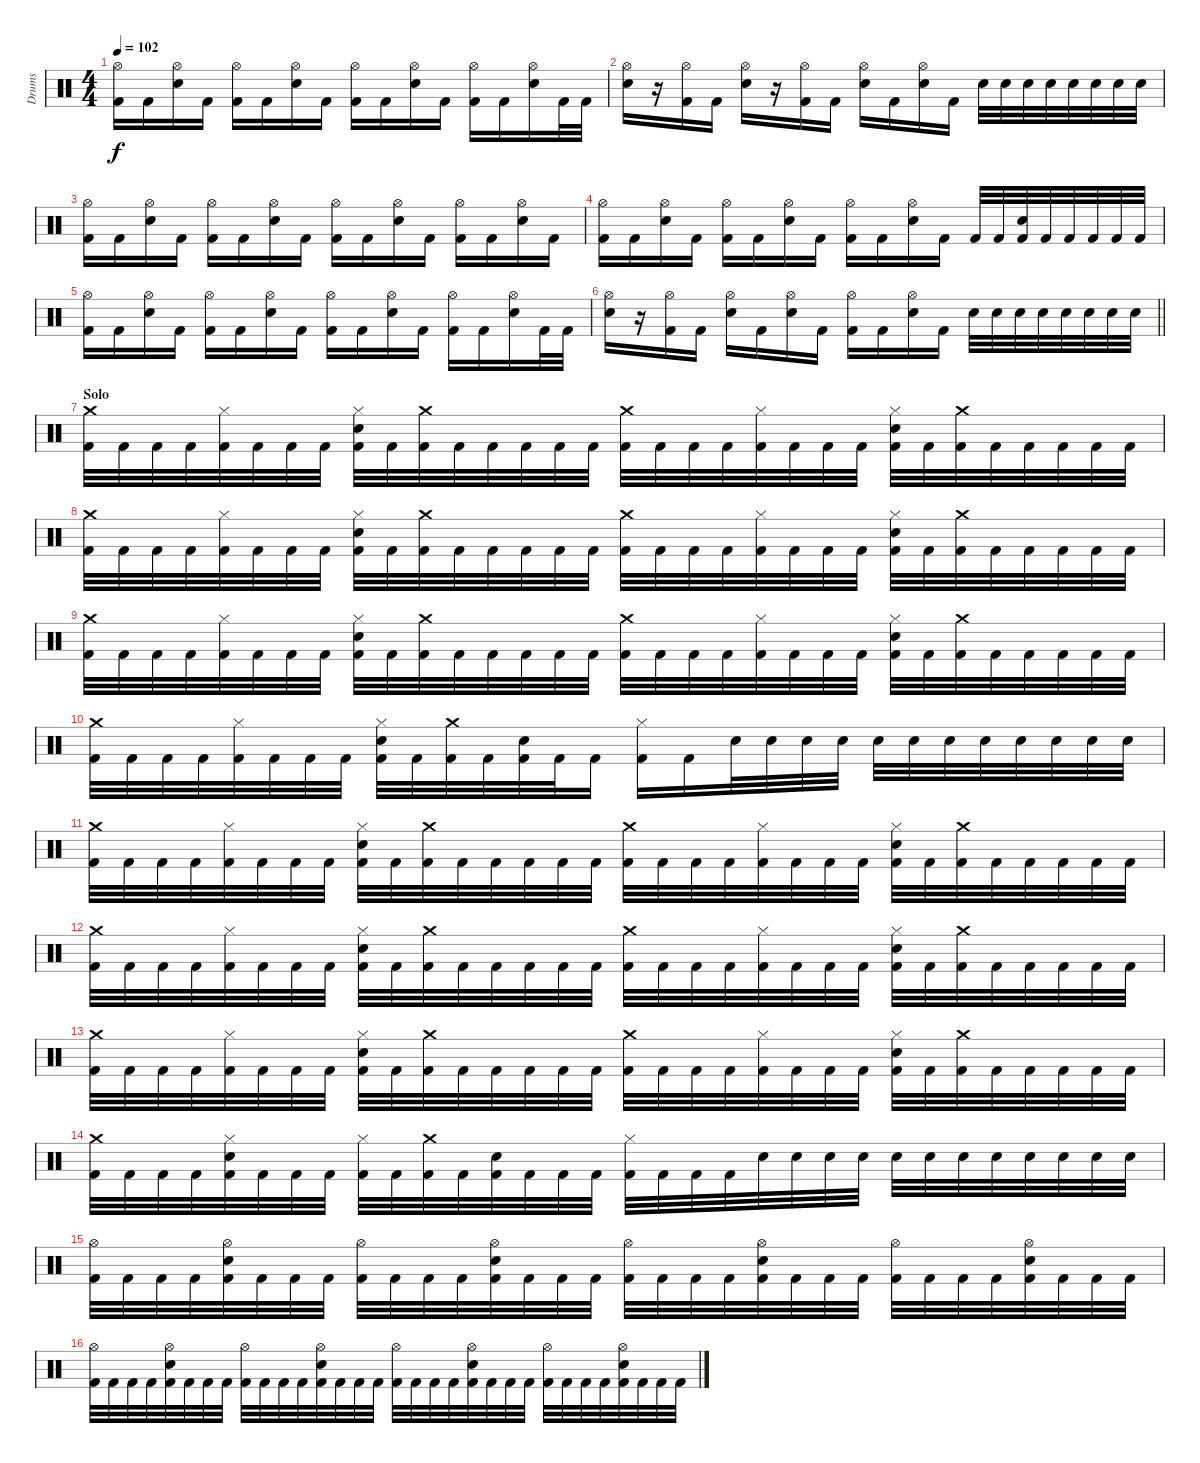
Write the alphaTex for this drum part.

\track ("Drums" "Drums") {instrument percussion}
\staff {score}
\articulation defaults
\ts (4 4)
\tempo 102
\clef neutral
\ks c
("Hi-Hat (open)" "Kick (hit) 2").16{dy f} "Kick (hit) 2".16 ("Hi-Hat (open)" "Snare (hit) 2").16 "Kick (hit) 2".16 ("Hi-Hat (open)" "Kick (hit) 2").16 "Kick (hit) 2".16 ("Hi-Hat (open)" "Snare (hit) 2").16 "Kick (hit) 2".16 ("Hi-Hat (open)" "Kick (hit) 2").16 "Kick (hit) 2".16 ("Hi-Hat (open)" "Snare (hit) 2").16 "Kick (hit) 2".16 ("Hi-Hat (open)" "Kick (hit) 2").16 "Kick (hit) 2".16 ("Hi-Hat (open)" "Snare (hit) 2").16 "Kick (hit) 2".32 "Kick (hit) 2".32 |
("Hi-Hat (open)" "Snare (hit) 2").16 r.16 ("Hi-Hat (open)" "Kick (hit) 2").16 "Kick (hit) 2".16 ("Hi-Hat (open)" "Snare (hit) 2").16 r.16 ("Hi-Hat (open)" "Kick (hit) 2").16 "Kick (hit) 2".16 ("Hi-Hat (open)" "Snare (hit) 2").16 "Kick (hit) 2".16 ("Hi-Hat (open)" "Snare (hit) 2").16 "Kick (hit) 2".16 "Snare (hit) 2".32 "Snare (hit) 2".32 "Snare (hit) 2".32 "Snare (hit) 2".32 "Snare (hit) 2".32 "Snare (hit) 2".32 "Snare (hit) 2".32 "Snare (hit) 2".32 |
("Hi-Hat (open)" "Kick (hit) 2").16 "Kick (hit) 2".16 ("Hi-Hat (open)" "Snare (hit) 2").16 "Kick (hit) 2".16 ("Hi-Hat (open)" "Kick (hit) 2").16 "Kick (hit) 2".16 ("Hi-Hat (open)" "Snare (hit) 2").16 "Kick (hit) 2".16 ("Hi-Hat (open)" "Kick (hit) 2").16 "Kick (hit) 2".16 ("Hi-Hat (open)" "Snare (hit) 2").16 "Kick (hit) 2".16 ("Hi-Hat (open)" "Kick (hit) 2").16 "Kick (hit) 2".16 ("Hi-Hat (open)" "Snare (hit) 2").16 "Kick (hit) 2".16 |
("Hi-Hat (open)" "Kick (hit) 2").16 "Kick (hit) 2".16 ("Hi-Hat (open)" "Snare (hit) 2").16 "Kick (hit) 2".16 ("Hi-Hat (open)" "Kick (hit) 2").16 "Kick (hit) 2".16 ("Hi-Hat (open)" "Snare (hit) 2").16 "Kick (hit) 2".16 ("Hi-Hat (open)" "Kick (hit) 2").16 "Kick (hit) 2".16 ("Hi-Hat (open)" "Snare (hit) 2").16 "Kick (hit) 2".16 "Kick (hit) 2".32 "Kick (hit) 2".32 ("Snare (hit) 2" "Kick (hit) 2").32 "Kick (hit) 2".32 "Kick (hit) 2".32 "Kick (hit) 2".32 "Kick (hit) 2".32 "Kick (hit) 2".32 |
("Hi-Hat (open)" "Kick (hit) 2").16 "Kick (hit) 2".16 ("Hi-Hat (open)" "Snare (hit) 2").16 "Kick (hit) 2".16 ("Hi-Hat (open)" "Kick (hit) 2").16 "Kick (hit) 2".16 ("Hi-Hat (open)" "Snare (hit) 2").16 "Kick (hit) 2".16 ("Hi-Hat (open)" "Kick (hit) 2").16 "Kick (hit) 2".16 ("Hi-Hat (open)" "Snare (hit) 2").16 "Kick (hit) 2".16 ("Hi-Hat (open)" "Kick (hit) 2").16 "Kick (hit) 2".16 ("Hi-Hat (open)" "Snare (hit) 2").16 "Kick (hit) 2".32 "Kick (hit) 2".32 |
\barLineRight lightlight
("Hi-Hat (open)" "Snare (hit) 2").16 r.16 ("Hi-Hat (open)" "Kick (hit) 2").16 "Kick (hit) 2".16 ("Hi-Hat (open)" "Snare (hit) 2").16 "Kick (hit) 2".16 ("Hi-Hat (open)" "Snare (hit) 2").16 "Kick (hit) 2".16 ("Hi-Hat (open)" "Kick (hit) 2").16 "Kick (hit) 2".16 ("Hi-Hat (open)" "Snare (hit) 2").16 "Kick (hit) 2".16 "Snare (hit) 2".32 "Snare (hit) 2".32 "Snare (hit) 2".32 "Snare (hit) 2".32 "Snare (hit) 2".32 "Snare (hit) 2".32 "Snare (hit) 2".32 "Snare (hit) 2".32 |
\section ("" "Solo")
("Crash medium (hit)" "Kick (hit) 2").32 "Kick (hit) 2".32 "Kick (hit) 2".32 "Kick (hit) 2".32 ("Hi-Hat (closed)" "Kick (hit) 2").32 "Kick (hit) 2".32 "Kick (hit) 2".32 "Kick (hit) 2".32 ("Hi-Hat (closed)" "Snare (hit) 2" "Kick (hit) 2").32 "Kick (hit) 2".32 ("Crash medium (hit)" "Kick (hit) 2").32 "Kick (hit) 2".32 "Kick (hit) 2".32 "Kick (hit) 2".32 "Kick (hit) 2".32 "Kick (hit) 2".32 ("Crash medium (hit)" "Kick (hit) 2").32 "Kick (hit) 2".32 "Kick (hit) 2".32 "Kick (hit) 2".32 ("Hi-Hat (closed)" "Kick (hit) 2").32 "Kick (hit) 2".32 "Kick (hit) 2".32 "Kick (hit) 2".32 ("Hi-Hat (closed)" "Snare (hit) 2" "Kick (hit) 2").32 "Kick (hit) 2".32 ("Crash medium (hit)" "Kick (hit) 2").32 "Kick (hit) 2".32 "Kick (hit) 2".32 "Kick (hit) 2".32 "Kick (hit) 2".32 "Kick (hit) 2".32 |
("Crash medium (hit)" "Kick (hit) 2").32 "Kick (hit) 2".32 "Kick (hit) 2".32 "Kick (hit) 2".32 ("Hi-Hat (closed)" "Kick (hit) 2").32 "Kick (hit) 2".32 "Kick (hit) 2".32 "Kick (hit) 2".32 ("Hi-Hat (closed)" "Snare (hit) 2" "Kick (hit) 2").32 "Kick (hit) 2".32 ("Crash medium (hit)" "Kick (hit) 2").32 "Kick (hit) 2".32 "Kick (hit) 2".32 "Kick (hit) 2".32 "Kick (hit) 2".32 "Kick (hit) 2".32 ("Crash medium (hit)" "Kick (hit) 2").32 "Kick (hit) 2".32 "Kick (hit) 2".32 "Kick (hit) 2".32 ("Hi-Hat (closed)" "Kick (hit) 2").32 "Kick (hit) 2".32 "Kick (hit) 2".32 "Kick (hit) 2".32 ("Hi-Hat (closed)" "Snare (hit) 2" "Kick (hit) 2").32 "Kick (hit) 2".32 ("Crash medium (hit)" "Kick (hit) 2").32 "Kick (hit) 2".32 "Kick (hit) 2".32 "Kick (hit) 2".32 "Kick (hit) 2".32 "Kick (hit) 2".32 |
("Crash medium (hit)" "Kick (hit) 2").32 "Kick (hit) 2".32 "Kick (hit) 2".32 "Kick (hit) 2".32 ("Hi-Hat (closed)" "Kick (hit) 2").32 "Kick (hit) 2".32 "Kick (hit) 2".32 "Kick (hit) 2".32 ("Hi-Hat (closed)" "Snare (hit) 2" "Kick (hit) 2").32 "Kick (hit) 2".32 ("Crash medium (hit)" "Kick (hit) 2").32 "Kick (hit) 2".32 "Kick (hit) 2".32 "Kick (hit) 2".32 "Kick (hit) 2".32 "Kick (hit) 2".32 ("Crash medium (hit)" "Kick (hit) 2").32 "Kick (hit) 2".32 "Kick (hit) 2".32 "Kick (hit) 2".32 ("Hi-Hat (closed)" "Kick (hit) 2").32 "Kick (hit) 2".32 "Kick (hit) 2".32 "Kick (hit) 2".32 ("Hi-Hat (closed)" "Snare (hit) 2" "Kick (hit) 2").32 "Kick (hit) 2".32 ("Crash medium (hit)" "Kick (hit) 2").32 "Kick (hit) 2".32 "Kick (hit) 2".32 "Kick (hit) 2".32 "Kick (hit) 2".32 "Kick (hit) 2".32 |
("Crash medium (hit)" "Kick (hit) 2").32 "Kick (hit) 2".32 "Kick (hit) 2".32 "Kick (hit) 2".32 ("Hi-Hat (closed)" "Kick (hit) 2").32 "Kick (hit) 2".32 "Kick (hit) 2".32 "Kick (hit) 2".32 ("Hi-Hat (closed)" "Snare (hit) 2" "Kick (hit) 2").32 "Kick (hit) 2".32 ("Crash medium (hit)" "Kick (hit) 2").32 "Kick (hit) 2".32 ("Snare (hit) 2" "Kick (hit) 2").32 "Kick (hit) 2".32 "Kick (hit) 2".16 ("Hi-Hat (closed)" "Kick (hit) 2").16 "Kick (hit) 2".16 "Snare (hit) 2".32 "Snare (hit) 2".32 "Snare (hit) 2".32 "Snare (hit) 2".32 "Snare (hit) 2".32 "Snare (hit) 2".32 "Snare (hit) 2".32 "Snare (hit) 2".32 "Snare (hit) 2".32 "Snare (hit) 2".32 "Snare (hit) 2".32 "Snare (hit) 2".32 |
("Crash medium (hit)" "Kick (hit) 2").32 "Kick (hit) 2".32 "Kick (hit) 2".32 "Kick (hit) 2".32 ("Hi-Hat (closed)" "Kick (hit) 2").32 "Kick (hit) 2".32 "Kick (hit) 2".32 "Kick (hit) 2".32 ("Hi-Hat (closed)" "Snare (hit) 2" "Kick (hit) 2").32 "Kick (hit) 2".32 ("Crash medium (hit)" "Kick (hit) 2").32 "Kick (hit) 2".32 "Kick (hit) 2".32 "Kick (hit) 2".32 "Kick (hit) 2".32 "Kick (hit) 2".32 ("Crash medium (hit)" "Kick (hit) 2").32 "Kick (hit) 2".32 "Kick (hit) 2".32 "Kick (hit) 2".32 ("Hi-Hat (closed)" "Kick (hit) 2").32 "Kick (hit) 2".32 "Kick (hit) 2".32 "Kick (hit) 2".32 ("Hi-Hat (closed)" "Snare (hit) 2" "Kick (hit) 2").32 "Kick (hit) 2".32 ("Crash medium (hit)" "Kick (hit) 2").32 "Kick (hit) 2".32 "Kick (hit) 2".32 "Kick (hit) 2".32 "Kick (hit) 2".32 "Kick (hit) 2".32 |
("Crash medium (hit)" "Kick (hit) 2").32 "Kick (hit) 2".32 "Kick (hit) 2".32 "Kick (hit) 2".32 ("Hi-Hat (closed)" "Kick (hit) 2").32 "Kick (hit) 2".32 "Kick (hit) 2".32 "Kick (hit) 2".32 ("Hi-Hat (closed)" "Snare (hit) 2" "Kick (hit) 2").32 "Kick (hit) 2".32 ("Crash medium (hit)" "Kick (hit) 2").32 "Kick (hit) 2".32 "Kick (hit) 2".32 "Kick (hit) 2".32 "Kick (hit) 2".32 "Kick (hit) 2".32 ("Crash medium (hit)" "Kick (hit) 2").32 "Kick (hit) 2".32 "Kick (hit) 2".32 "Kick (hit) 2".32 ("Hi-Hat (closed)" "Kick (hit) 2").32 "Kick (hit) 2".32 "Kick (hit) 2".32 "Kick (hit) 2".32 ("Hi-Hat (closed)" "Snare (hit) 2" "Kick (hit) 2").32 "Kick (hit) 2".32 ("Crash medium (hit)" "Kick (hit) 2").32 "Kick (hit) 2".32 "Kick (hit) 2".32 "Kick (hit) 2".32 "Kick (hit) 2".32 "Kick (hit) 2".32 |
("Crash medium (hit)" "Kick (hit) 2").32 "Kick (hit) 2".32 "Kick (hit) 2".32 "Kick (hit) 2".32 ("Hi-Hat (closed)" "Kick (hit) 2").32 "Kick (hit) 2".32 "Kick (hit) 2".32 "Kick (hit) 2".32 ("Hi-Hat (closed)" "Snare (hit) 2" "Kick (hit) 2").32 "Kick (hit) 2".32 ("Crash medium (hit)" "Kick (hit) 2").32 "Kick (hit) 2".32 "Kick (hit) 2".32 "Kick (hit) 2".32 "Kick (hit) 2".32 "Kick (hit) 2".32 ("Crash medium (hit)" "Kick (hit) 2").32 "Kick (hit) 2".32 "Kick (hit) 2".32 "Kick (hit) 2".32 ("Hi-Hat (closed)" "Kick (hit) 2").32 "Kick (hit) 2".32 "Kick (hit) 2".32 "Kick (hit) 2".32 ("Hi-Hat (closed)" "Snare (hit) 2" "Kick (hit) 2").32 "Kick (hit) 2".32 ("Crash medium (hit)" "Kick (hit) 2").32 "Kick (hit) 2".32 "Kick (hit) 2".32 "Kick (hit) 2".32 "Kick (hit) 2".32 "Kick (hit) 2".32 |
("Crash medium (hit)" "Kick (hit) 2").32 "Kick (hit) 2".32 "Kick (hit) 2".32 "Kick (hit) 2".32 ("Hi-Hat (closed)" "Snare (hit) 2" "Kick (hit) 2").32 "Kick (hit) 2".32 "Kick (hit) 2".32 "Kick (hit) 2".32 ("Hi-Hat (closed)" "Kick (hit) 2").32 "Kick (hit) 2".32 ("Crash medium (hit)" "Kick (hit) 2").32 "Kick (hit) 2".32 ("Snare (hit) 2" "Kick (hit) 2").32 "Kick (hit) 2".32 "Kick (hit) 2".32 "Kick (hit) 2".32 ("Hi-Hat (closed)" "Kick (hit) 2").32 "Kick (hit) 2".32 "Kick (hit) 2".32 "Kick (hit) 2".32 "Snare (hit) 2".32 "Snare (hit) 2".32 "Snare (hit) 2".32 "Snare (hit) 2".32 "Snare (hit) 2".32 "Snare (hit) 2".32 "Snare (hit) 2".32 "Snare (hit) 2".32 "Snare (hit) 2".32 "Snare (hit) 2".32 "Snare (hit) 2".32 "Snare (hit) 2".32 |
("Hi-Hat (open)" "Kick (hit) 2").32 "Kick (hit) 2".32 "Kick (hit) 2".32 "Kick (hit) 2".32 ("Hi-Hat (open)" "Snare (hit) 2" "Kick (hit) 2").32 "Kick (hit) 2".32 "Kick (hit) 2".32 "Kick (hit) 2".32 ("Hi-Hat (open)" "Kick (hit) 2").32 "Kick (hit) 2".32 "Kick (hit) 2".32 "Kick (hit) 2".32 ("Hi-Hat (open)" "Snare (hit) 2" "Kick (hit) 2").32 "Kick (hit) 2".32 "Kick (hit) 2".32 "Kick (hit) 2".32 ("Hi-Hat (open)" "Kick (hit) 2").32 "Kick (hit) 2".32 "Kick (hit) 2".32 "Kick (hit) 2".32 ("Hi-Hat (open)" "Snare (hit) 2" "Kick (hit) 2").32 "Kick (hit) 2".32 "Kick (hit) 2".32 "Kick (hit) 2".32 ("Hi-Hat (open)" "Kick (hit) 2").32 "Kick (hit) 2".32 "Kick (hit) 2".32 "Kick (hit) 2".32 ("Hi-Hat (open)" "Snare (hit) 2" "Kick (hit) 2").32 "Kick (hit) 2".32 "Kick (hit) 2".32 "Kick (hit) 2".32 |
("Hi-Hat (open)" "Kick (hit) 2").32 "Kick (hit) 2".32 "Kick (hit) 2".32 "Kick (hit) 2".32 ("Hi-Hat (open)" "Snare (hit) 2" "Kick (hit) 2").32 "Kick (hit) 2".32 "Kick (hit) 2".32 "Kick (hit) 2".32 ("Hi-Hat (open)" "Kick (hit) 2").32 "Kick (hit) 2".32 "Kick (hit) 2".32 "Kick (hit) 2".32 ("Hi-Hat (open)" "Snare (hit) 2" "Kick (hit) 2").32 "Kick (hit) 2".32 "Kick (hit) 2".32 "Kick (hit) 2".32 ("Hi-Hat (open)" "Kick (hit) 2").32 "Kick (hit) 2".32 "Kick (hit) 2".32 "Kick (hit) 2".32 ("Hi-Hat (open)" "Snare (hit) 2" "Kick (hit) 2").32 "Kick (hit) 2".32 "Kick (hit) 2".32 "Kick (hit) 2".32 ("Hi-Hat (open)" "Kick (hit) 2").32 "Kick (hit) 2".32 "Kick (hit) 2".32 "Kick (hit) 2".32 ("Hi-Hat (open)" "Snare (hit) 2" "Kick (hit) 2").32 "Kick (hit) 2".32 "Kick (hit) 2".32 "Kick (hit) 2".32
